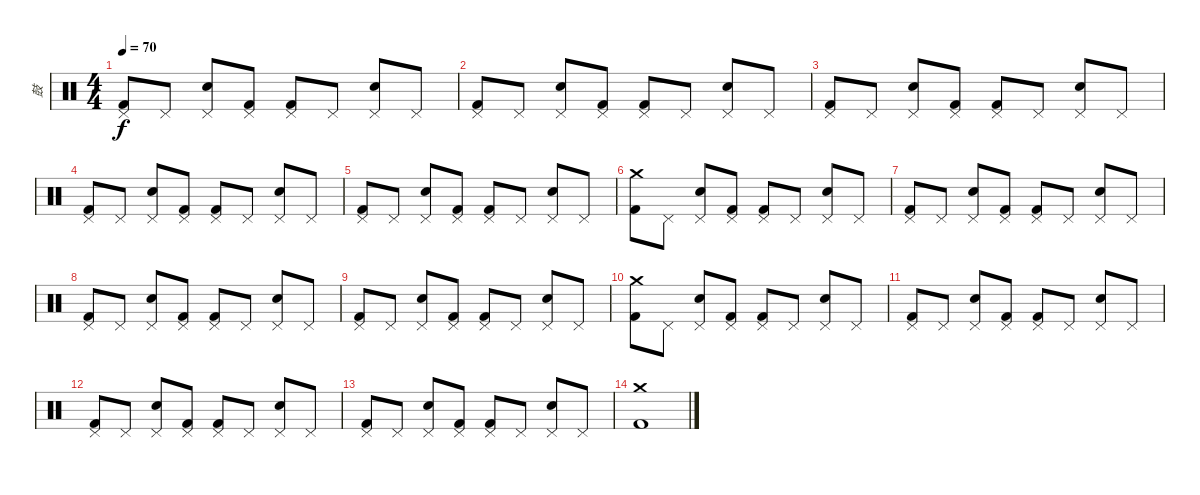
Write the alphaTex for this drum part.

\track ("鼓" "鼓") {instrument percussion}
\staff {score}
\articulation defaults
\ts (4 4)
\tempo 70
\clef neutral
\ks c
("Pedal Hi-Hat (hit)" "Kick (hit) 2").8{dy f} "Pedal Hi-Hat (hit)".8 ("Pedal Hi-Hat (hit)" "Snare (hit) 2").8 ("Pedal Hi-Hat (hit)" "Kick (hit) 2").8 ("Pedal Hi-Hat (hit)" "Kick (hit) 2").8 "Pedal Hi-Hat (hit)".8 ("Pedal Hi-Hat (hit)" "Snare (hit) 2").8 "Pedal Hi-Hat (hit)".8 |
("Pedal Hi-Hat (hit)" "Kick (hit) 2").8 "Pedal Hi-Hat (hit)".8 ("Pedal Hi-Hat (hit)" "Snare (hit) 2").8 ("Pedal Hi-Hat (hit)" "Kick (hit) 2").8 ("Pedal Hi-Hat (hit)" "Kick (hit) 2").8 "Pedal Hi-Hat (hit)".8 ("Pedal Hi-Hat (hit)" "Snare (hit) 2").8 "Pedal Hi-Hat (hit)".8 |
("Pedal Hi-Hat (hit)" "Kick (hit) 2").8 "Pedal Hi-Hat (hit)".8 ("Pedal Hi-Hat (hit)" "Snare (hit) 2").8 ("Pedal Hi-Hat (hit)" "Kick (hit) 2").8 ("Pedal Hi-Hat (hit)" "Kick (hit) 2").8 "Pedal Hi-Hat (hit)".8 ("Pedal Hi-Hat (hit)" "Snare (hit) 2").8 "Pedal Hi-Hat (hit)".8 |
("Pedal Hi-Hat (hit)" "Kick (hit) 2").8 "Pedal Hi-Hat (hit)".8 ("Pedal Hi-Hat (hit)" "Snare (hit) 2").8 ("Pedal Hi-Hat (hit)" "Kick (hit) 2").8 ("Pedal Hi-Hat (hit)" "Kick (hit) 2").8 "Pedal Hi-Hat (hit)".8 ("Pedal Hi-Hat (hit)" "Snare (hit) 2").8 "Pedal Hi-Hat (hit)".8 |
("Pedal Hi-Hat (hit)" "Kick (hit) 2").8 "Pedal Hi-Hat (hit)".8 ("Pedal Hi-Hat (hit)" "Snare (hit) 2").8 ("Pedal Hi-Hat (hit)" "Kick (hit) 2").8 ("Pedal Hi-Hat (hit)" "Kick (hit) 2").8 "Pedal Hi-Hat (hit)".8 ("Pedal Hi-Hat (hit)" "Snare (hit) 2").8 "Pedal Hi-Hat (hit)".8 |
("Crash medium (hit)" "Kick (hit) 2").8 "Pedal Hi-Hat (hit)".8 ("Pedal Hi-Hat (hit)" "Snare (hit) 2").8 ("Pedal Hi-Hat (hit)" "Kick (hit) 2").8 ("Pedal Hi-Hat (hit)" "Kick (hit) 2").8 "Pedal Hi-Hat (hit)".8 ("Pedal Hi-Hat (hit)" "Snare (hit) 2").8 "Pedal Hi-Hat (hit)".8 |
("Pedal Hi-Hat (hit)" "Kick (hit) 2").8 "Pedal Hi-Hat (hit)".8 ("Pedal Hi-Hat (hit)" "Snare (hit) 2").8 ("Pedal Hi-Hat (hit)" "Kick (hit) 2").8 ("Pedal Hi-Hat (hit)" "Kick (hit) 2").8 "Pedal Hi-Hat (hit)".8 ("Pedal Hi-Hat (hit)" "Snare (hit) 2").8 "Pedal Hi-Hat (hit)".8 |
("Pedal Hi-Hat (hit)" "Kick (hit) 2").8 "Pedal Hi-Hat (hit)".8 ("Pedal Hi-Hat (hit)" "Snare (hit) 2").8 ("Pedal Hi-Hat (hit)" "Kick (hit) 2").8 ("Pedal Hi-Hat (hit)" "Kick (hit) 2").8 "Pedal Hi-Hat (hit)".8 ("Pedal Hi-Hat (hit)" "Snare (hit) 2").8 "Pedal Hi-Hat (hit)".8 |
("Pedal Hi-Hat (hit)" "Kick (hit) 2").8 "Pedal Hi-Hat (hit)".8 ("Pedal Hi-Hat (hit)" "Snare (hit) 2").8 ("Pedal Hi-Hat (hit)" "Kick (hit) 2").8 ("Pedal Hi-Hat (hit)" "Kick (hit) 2").8 "Pedal Hi-Hat (hit)".8 ("Pedal Hi-Hat (hit)" "Snare (hit) 2").8 "Pedal Hi-Hat (hit)".8 |
("Crash medium (hit)" "Kick (hit) 2").8 "Pedal Hi-Hat (hit)".8 ("Pedal Hi-Hat (hit)" "Snare (hit) 2").8 ("Pedal Hi-Hat (hit)" "Kick (hit) 2").8 ("Pedal Hi-Hat (hit)" "Kick (hit) 2").8 "Pedal Hi-Hat (hit)".8 ("Pedal Hi-Hat (hit)" "Snare (hit) 2").8 "Pedal Hi-Hat (hit)".8 |
("Pedal Hi-Hat (hit)" "Kick (hit) 2").8 "Pedal Hi-Hat (hit)".8 ("Pedal Hi-Hat (hit)" "Snare (hit) 2").8 ("Pedal Hi-Hat (hit)" "Kick (hit) 2").8 ("Pedal Hi-Hat (hit)" "Kick (hit) 2").8 "Pedal Hi-Hat (hit)".8 ("Pedal Hi-Hat (hit)" "Snare (hit) 2").8 "Pedal Hi-Hat (hit)".8 |
("Pedal Hi-Hat (hit)" "Kick (hit) 2").8 "Pedal Hi-Hat (hit)".8 ("Pedal Hi-Hat (hit)" "Snare (hit) 2").8 ("Pedal Hi-Hat (hit)" "Kick (hit) 2").8 ("Pedal Hi-Hat (hit)" "Kick (hit) 2").8 "Pedal Hi-Hat (hit)".8 ("Pedal Hi-Hat (hit)" "Snare (hit) 2").8 "Pedal Hi-Hat (hit)".8 |
("Pedal Hi-Hat (hit)" "Kick (hit) 2").8 "Pedal Hi-Hat (hit)".8 ("Pedal Hi-Hat (hit)" "Snare (hit) 2").8 ("Pedal Hi-Hat (hit)" "Kick (hit) 2").8 ("Pedal Hi-Hat (hit)" "Kick (hit) 2").8 "Pedal Hi-Hat (hit)".8 ("Pedal Hi-Hat (hit)" "Snare (hit) 2").8 "Pedal Hi-Hat (hit)".8 |
("Crash medium (hit)" "Kick (hit) 2").1
